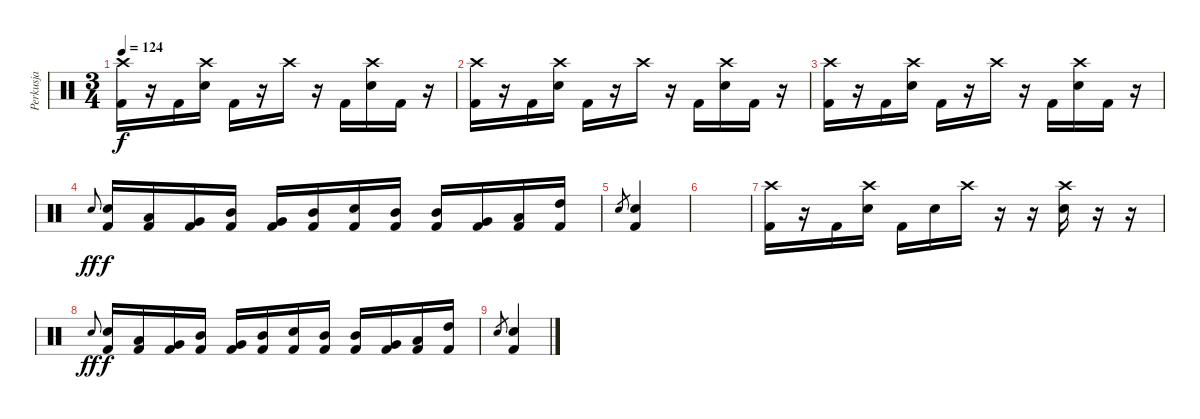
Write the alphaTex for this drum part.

\track ("Perkusja" "Perkusja") {instrument percussion}
\staff {score}
\articulation defaults
\ts (3 4)
\tempo 124
\clef neutral
\ks c
("Crash high (hit)" "Kick (hit) 2").16{dy f} r.16 "Kick (hit) 2".16 ("Crash high (hit)" "Electric Snare (hit)").16 "Kick (hit) 2".16 r.16 "Crash high (hit)".16 r.16 "Kick (hit) 2".16 ("Crash high (hit)" "Electric Snare (hit)").16 "Kick (hit) 2".16 r.16 |
("Crash high (hit)" "Kick (hit) 2").16 r.16 "Kick (hit) 2".16 ("Crash high (hit)" "Electric Snare (hit)").16 "Kick (hit) 2".16 r.16 "Crash high (hit)".16 r.16 "Kick (hit) 2".16 ("Crash high (hit)" "Electric Snare (hit)").16 "Kick (hit) 2".16 r.16 |
("Crash high (hit)" "Kick (hit) 2").16 r.16 "Kick (hit) 2".16 ("Crash high (hit)" "Electric Snare (hit)").16 "Kick (hit) 2".16 r.16 "Crash high (hit)".16 r.16 "Kick (hit) 2".16 ("Crash high (hit)" "Electric Snare (hit)").16 "Kick (hit) 2".16 r.16 |
"Electric Snare (hit)".8{gr onbeat dy ff} ("Kick (hit) 2" "Electric Snare (hit)").16{dy f} ("Kick (hit) 2" "Low Tom (hit)").16 ("Kick (hit) 2" "Very Low Tom (hit)").16 ("Kick (hit) 2" "Mid Tom (hit)").16 ("Kick (hit) 2" "Very Low Tom (hit)").16 ("Kick (hit) 2" "Mid Tom (hit)").16 ("Kick (hit) 2" "Electric Snare (hit)").16 ("Kick (hit) 2" "Mid Tom (hit)").16 ("Kick (hit) 2" "Mid Tom (hit)").16 ("Kick (hit) 2" "Very Low Tom (hit)").16 ("Kick (hit) 2" "Low Tom (hit)").16 ("Kick (hit) 2" "High Tom (hit)").16 |
"Electric Snare (hit)".8{gr} ("Electric Snare (hit)" "Kick (hit) 2").4 |
|
("Crash high (hit)" "Kick (hit) 2").16 r.16 "Kick (hit) 2".16 ("Crash high (hit)" "Electric Snare (hit)").16 "Kick (hit) 2".16 "Electric Snare (hit)".16 "Crash high (hit)".16 r.16 r.16 ("Crash high (hit)" "Electric Snare (hit)").16 r.16 r.16 |
"Electric Snare (hit)".8{gr onbeat dy ff} ("Kick (hit) 2" "Electric Snare (hit)").16{dy f} ("Kick (hit) 2" "Low Tom (hit)").16 ("Kick (hit) 2" "Very Low Tom (hit)").16 ("Kick (hit) 2" "Mid Tom (hit)").16 ("Kick (hit) 2" "Very Low Tom (hit)").16 ("Kick (hit) 2" "Mid Tom (hit)").16 ("Kick (hit) 2" "Electric Snare (hit)").16 ("Kick (hit) 2" "Mid Tom (hit)").16 ("Kick (hit) 2" "Mid Tom (hit)").16 ("Kick (hit) 2" "Very Low Tom (hit)").16 ("Kick (hit) 2" "Low Tom (hit)").16 ("Kick (hit) 2" "High Tom (hit)").16 |
"Electric Snare (hit)".8{gr} ("Electric Snare (hit)" "Kick (hit) 2").4
